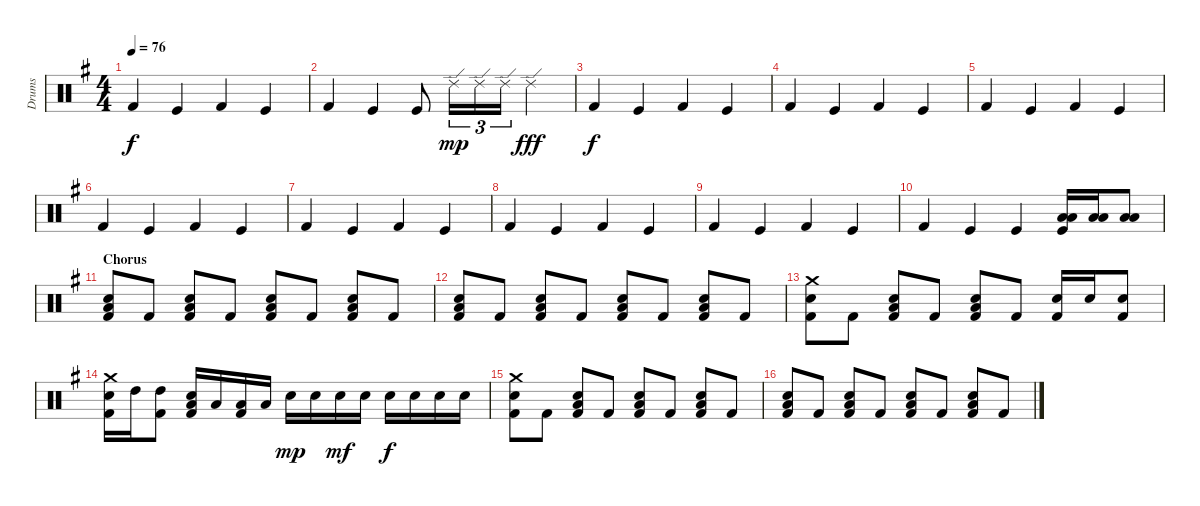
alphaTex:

\track ("Drums " "Drums ") {instrument percussion}
\staff {score}
\articulation defaults
\ts (4 4)
\tempo 76
\clef neutral
\ks eminor "Kick (hit) 2".4{dy f} "Kick (hit)".4 "Kick (hit) 2".4 "Kick (hit)".4
|
"Kick (hit) 2".4 "Kick (hit)".4 "Kick (hit)".8 "Ride (edge) 2".16{tu (3 2) dy mp} "Ride (edge) 2".16{tu (3 2)} "Ride (edge) 2".16{tu (3 2)} "Ride (edge) 2".4{dy fff} |
"Kick (hit) 2".4{dy f} "Kick (hit)".4 "Kick (hit) 2".4 "Kick (hit)".4 |
"Kick (hit) 2".4 "Kick (hit)".4 "Kick (hit) 2".4 "Kick (hit)".4 |
"Kick (hit) 2".4 "Kick (hit)".4 "Kick (hit) 2".4 "Kick (hit)".4 |
"Kick (hit) 2".4 "Kick (hit)".4 "Kick (hit) 2".4 "Kick (hit)".4 |
"Kick (hit) 2".4 "Kick (hit)".4 "Kick (hit) 2".4 "Kick (hit)".4 |
"Kick (hit) 2".4 "Kick (hit)".4 "Kick (hit) 2".4 "Kick (hit)".4 |
"Kick (hit) 2".4 "Kick (hit)".4 "Kick (hit) 2".4 "Kick (hit)".4 |
"Kick (hit) 2".4 "Kick (hit)".4 "Kick (hit)".4 ("Low Tom (hit)" "Low Floor Tom (hit)" "Kick (hit)").16 ("Low Tom (hit)" "Low Tom (hit)").16 ("Low Tom (hit)" "Low Tom (hit)").8 |
\section ("" "Chorus")
("Snare (hit) 2" "Low Floor Tom (hit)" "Kick (hit) 2").8 "Kick (hit) 2".8 ("Snare (hit) 2" "Low Floor Tom (hit)" "Kick (hit) 2").8 "Kick (hit) 2".8 ("Snare (hit) 2" "Low Floor Tom (hit)" "Kick (hit) 2").8 "Kick (hit) 2".8 ("Snare (hit) 2" "Low Floor Tom (hit)" "Kick (hit) 2").8 "Kick (hit) 2".8 |
("Snare (hit) 2" "Low Floor Tom (hit)" "Kick (hit) 2").8 "Kick (hit) 2".8 ("Snare (hit) 2" "Low Floor Tom (hit)" "Kick (hit) 2").8 "Kick (hit) 2".8 ("Snare (hit) 2" "Low Floor Tom (hit)" "Kick (hit) 2").8 "Kick (hit) 2".8 ("Snare (hit) 2" "Low Floor Tom (hit)" "Kick (hit) 2").8 "Kick (hit) 2".8 |
("Crash medium (hit)" "Snare (hit) 2" "Kick (hit) 2").8 "Kick (hit) 2".8 ("Snare (hit) 2" "Low Floor Tom (hit)" "Kick (hit) 2").8 "Kick (hit) 2".8 ("Snare (hit) 2" "Low Floor Tom (hit)" "Kick (hit) 2").8 "Kick (hit) 2".8 ("Snare (hit) 2" "Kick (hit) 2").16 "Snare (hit) 2".16 ("Snare (hit) 2" "Kick (hit) 2").8 |
("Crash medium (hit)" "Snare (hit) 2" "Kick (hit) 2").16 "High Tom (hit)".16 ("High Tom (hit)" "Kick (hit) 2").8 ("Snare (hit) 2" "Low Floor Tom (hit)" "Kick (hit) 2").16 "Low Floor Tom (hit)".16 ("Low Floor Tom (hit)" "Kick (hit) 2").16 "Low Floor Tom (hit)".16 "Snare (hit) 2".16{dy mp} "Snare (hit) 2".16 "Snare (hit) 2".16{dy mf} "Snare (hit) 2".16 "Snare (hit) 2".16{dy f} "Snare (hit) 2".16 "Snare (hit) 2".16 "Snare (hit) 2".16 |
("Crash medium (hit)" "Snare (hit) 2" "Kick (hit) 2").8 "Kick (hit) 2".8 ("Snare (hit) 2" "Low Floor Tom (hit)" "Kick (hit) 2").8 "Kick (hit) 2".8 ("Snare (hit) 2" "Low Floor Tom (hit)" "Kick (hit) 2").8 "Kick (hit) 2".8 ("Snare (hit) 2" "Low Floor Tom (hit)" "Kick (hit) 2").8 "Kick (hit) 2".8 |
("Snare (hit) 2" "Low Floor Tom (hit)" "Kick (hit) 2").8 "Kick (hit) 2".8 ("Snare (hit) 2" "Low Floor Tom (hit)" "Kick (hit) 2").8 "Kick (hit) 2".8 ("Snare (hit) 2" "Low Floor Tom (hit)" "Kick (hit) 2").8 "Kick (hit) 2".8 ("Snare (hit) 2" "Low Floor Tom (hit)" "Kick (hit) 2").8 "Kick (hit) 2".8
